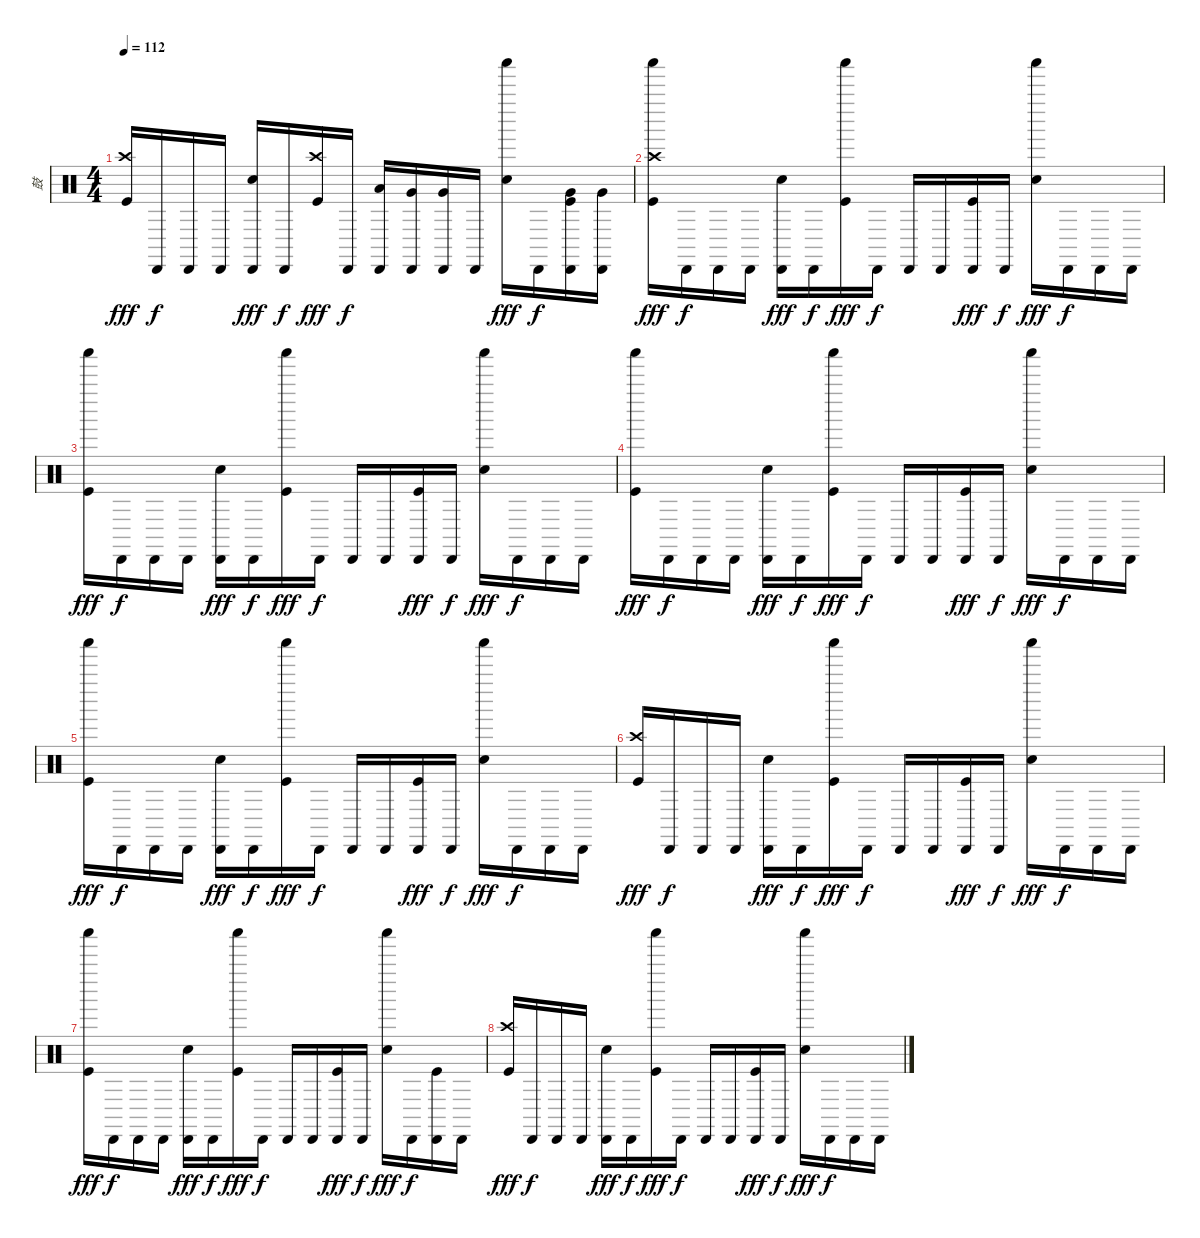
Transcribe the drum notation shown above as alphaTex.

\track ("鼓" "鼓") {instrument percussion}
\staff {score}
\articulation defaults
\ts (4 4)
\tempo 112
\clef neutral
\ks c
("Crash high (hit)" "Kick (hit)").16{dy fff} "Cabasa (hit)".16{dy f} "Cabasa (hit)".16 "Cabasa (hit)".16 ("Cabasa (hit)" "Electric Snare (hit)").16{dy fff} "Cabasa (hit)".16{dy f} ("Crash high (hit)" "Kick (hit)").16{dy fff} "Cabasa (hit)".16{dy f} ("Cabasa (hit)" "Low Tom (hit)").16 ("Cabasa (hit)" "Very Low Tom (hit)").16 ("Cabasa (hit)" "Very Low Tom (hit)").16 "Cabasa (hit)".16 ("Shaker (hit)" "Electric Snare (hit)").16{dy fff} "Cabasa (hit)".16{dy f} ("Cabasa (hit)" "Very Low Tom (hit)" "Kick (hit)").16 ("Cabasa (hit)" "Very Low Tom (hit)").16 |
("Shaker (hit)" "Crash high (hit)" "Kick (hit)").16{dy fff} "Cabasa (hit)".16{dy f} "Cabasa (hit)".16 "Cabasa (hit)".16 ("Cabasa (hit)" "Electric Snare (hit)").16{dy fff} "Cabasa (hit)".16{dy f} ("Shaker (hit)" "Kick (hit)").16{dy fff} "Cabasa (hit)".16{dy f} "Cabasa (hit)".16 "Cabasa (hit)".16 ("Cabasa (hit)" "Kick (hit)").16{dy fff} "Cabasa (hit)".16{dy f} ("Shaker (hit)" "Electric Snare (hit)").16{dy fff} "Cabasa (hit)".16{dy f} "Cabasa (hit)".16 "Cabasa (hit)".16 |
("Shaker (hit)" "Kick (hit)").16{dy fff} "Cabasa (hit)".16{dy f} "Cabasa (hit)".16 "Cabasa (hit)".16 ("Cabasa (hit)" "Electric Snare (hit)").16{dy fff} "Cabasa (hit)".16{dy f} ("Shaker (hit)" "Kick (hit)").16{dy fff} "Cabasa (hit)".16{dy f} "Cabasa (hit)".16 "Cabasa (hit)".16 ("Cabasa (hit)" "Kick (hit)").16{dy fff} "Cabasa (hit)".16{dy f} ("Shaker (hit)" "Electric Snare (hit)").16{dy fff} "Cabasa (hit)".16{dy f} "Cabasa (hit)".16 "Cabasa (hit)".16 |
("Shaker (hit)" "Kick (hit)").16{dy fff} "Cabasa (hit)".16{dy f} "Cabasa (hit)".16 "Cabasa (hit)".16 ("Cabasa (hit)" "Electric Snare (hit)").16{dy fff} "Cabasa (hit)".16{dy f} ("Shaker (hit)" "Kick (hit)").16{dy fff} "Cabasa (hit)".16{dy f} "Cabasa (hit)".16 "Cabasa (hit)".16 ("Cabasa (hit)" "Kick (hit)").16{dy fff} "Cabasa (hit)".16{dy f} ("Shaker (hit)" "Electric Snare (hit)").16{dy fff} "Cabasa (hit)".16{dy f} "Cabasa (hit)".16 "Cabasa (hit)".16 |
("Shaker (hit)" "Kick (hit)").16{dy fff} "Cabasa (hit)".16{dy f} "Cabasa (hit)".16 "Cabasa (hit)".16 ("Cabasa (hit)" "Electric Snare (hit)").16{dy fff} "Cabasa (hit)".16{dy f} ("Shaker (hit)" "Kick (hit)").16{dy fff} "Cabasa (hit)".16{dy f} "Cabasa (hit)".16 "Cabasa (hit)".16 ("Cabasa (hit)" "Kick (hit)").16{dy fff} "Cabasa (hit)".16{dy f} ("Shaker (hit)" "Electric Snare (hit)").16{dy fff} "Cabasa (hit)".16{dy f} "Cabasa (hit)".16 "Cabasa (hit)".16 |
("Crash high (hit)" "Kick (hit)").16{dy fff} "Cabasa (hit)".16{dy f} "Cabasa (hit)".16 "Cabasa (hit)".16 ("Cabasa (hit)" "Electric Snare (hit)").16{dy fff} "Cabasa (hit)".16{dy f} ("Shaker (hit)" "Kick (hit)").16{dy fff} "Cabasa (hit)".16{dy f} "Cabasa (hit)".16 "Cabasa (hit)".16 ("Cabasa (hit)" "Kick (hit)").16{dy fff} "Cabasa (hit)".16{dy f} ("Shaker (hit)" "Electric Snare (hit)").16{dy fff} "Cabasa (hit)".16{dy f} "Cabasa (hit)".16 "Cabasa (hit)".16 |
("Shaker (hit)" "Kick (hit)").16{dy fff} "Cabasa (hit)".16{dy f} "Cabasa (hit)".16 "Cabasa (hit)".16 ("Cabasa (hit)" "Electric Snare (hit)").16{dy fff} "Cabasa (hit)".16{dy f} ("Shaker (hit)" "Kick (hit)").16{dy fff} "Cabasa (hit)".16{dy f} "Cabasa (hit)".16 "Cabasa (hit)".16 ("Cabasa (hit)" "Kick (hit)").16{dy fff} "Cabasa (hit)".16{dy f} ("Shaker (hit)" "Electric Snare (hit)").16{dy fff} "Cabasa (hit)".16{dy f} ("Cabasa (hit)" "Kick (hit)").16 "Cabasa (hit)".16 |
("Crash high (hit)" "Kick (hit)").16{dy fff} "Cabasa (hit)".16{dy f} "Cabasa (hit)".16 "Cabasa (hit)".16 ("Cabasa (hit)" "Electric Snare (hit)").16{dy fff} "Cabasa (hit)".16{dy f} ("Shaker (hit)" "Kick (hit)").16{dy fff} "Cabasa (hit)".16{dy f} "Cabasa (hit)".16 "Cabasa (hit)".16 ("Cabasa (hit)" "Kick (hit)").16{dy fff} "Cabasa (hit)".16{dy f} ("Shaker (hit)" "Electric Snare (hit)").16{dy fff} "Cabasa (hit)".16{dy f} "Cabasa (hit)".16 "Cabasa (hit)".16
